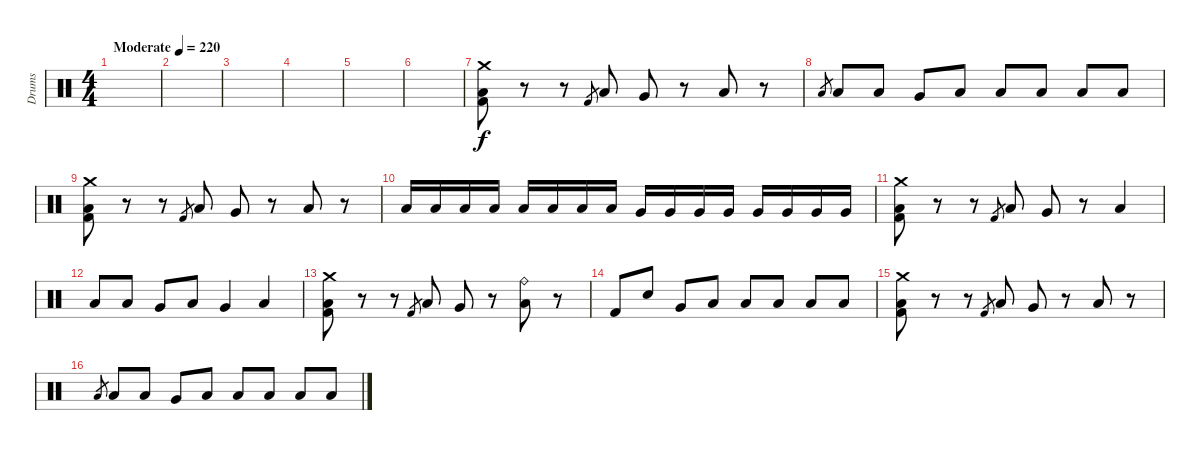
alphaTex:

\track ("Drums" "Drums") {instrument percussion}
\staff {score}
\articulation defaults
\ts (4 4)
\tempo (220 "Moderate")
\clef neutral
\ks c
|
|
|
|
|
|
("Crash medium (hit)" "Low Tom (hit)" "Kick (hit) 2").8 r.8 r.8 "Kick (hit) 2".8{gr} "Low Tom (hit)".8 "Very Low Tom (hit)".8 r.8 "Low Tom (hit)".8 r.8 |
"Low Tom (hit)".8{gr} "Low Tom (hit)".8 "Low Tom (hit)".8 "Very Low Tom (hit)".8 "Low Tom (hit)".8 "Low Tom (hit)".8 "Low Tom (hit)".8 "Low Floor Tom (hit)".8 "Low Floor Tom (hit)".8 |
("Crash medium (hit)" "Low Tom (hit)" "Kick (hit) 2").8 r.8 r.8 "Kick (hit) 2".8{gr} "Low Tom (hit)".8 "Very Low Tom (hit)".8 r.8 "Low Tom (hit)".8 r.8 |
"Low Tom (hit)".16 "Low Tom (hit)".16 "Low Tom (hit)".16 "Low Tom (hit)".16 "Low Tom (hit)".16 "Low Tom (hit)".16 "Low Tom (hit)".16 "Low Tom (hit)".16 "Very Low Tom (hit)".16 "Very Low Tom (hit)".16 "Very Low Tom (hit)".16 "Very Low Tom (hit)".16 "Very Low Tom (hit)".16 "Very Low Tom (hit)".16 "Very Low Tom (hit)".16 "Very Low Tom (hit)".16 |
("Crash medium (hit)" "Low Tom (hit)" "Kick (hit) 2").8 r.8 r.8 "Kick (hit) 2".8{gr} "Low Tom (hit)".8 "Very Low Tom (hit)".8 r.8 "Low Tom (hit)".4 |
"Low Tom (hit)".8 "Low Tom (hit)".8 "Very Low Tom (hit)".8 "Low Tom (hit)".8 "Very Low Tom (hit)".4 "Low Floor Tom (hit)".4 |
("Crash medium (hit)" "Low Tom (hit)" "Kick (hit) 2").8 r.8 r.8 "Kick (hit) 2".8{gr} "Low Tom (hit)".8 "Very Low Tom (hit)".8 r.8 ("Ride (bell)" "Low Tom (hit)").8 r.8 |
"Kick (hit) 2".8 "Snare (hit) 2".8 "Very Low Tom (hit)".8 "Low Tom (hit)".8 "Low Tom (hit)".8 "Low Tom (hit)".8 "Low Floor Tom (hit)".8 "Low Floor Tom (hit)".8 |
("Crash medium (hit)" "Low Tom (hit)" "Kick (hit) 2").8 r.8 r.8 "Kick (hit) 2".8{gr} "Low Tom (hit)".8 "Very Low Tom (hit)".8 r.8 "Low Tom (hit)".8 r.8 |
"Low Tom (hit)".8{gr} "Low Tom (hit)".8 "Low Tom (hit)".8 "Very Low Tom (hit)".8 "Low Tom (hit)".8 "Low Tom (hit)".8 "Low Tom (hit)".8 "Low Floor Tom (hit)".8 "Low Floor Tom (hit)".8
